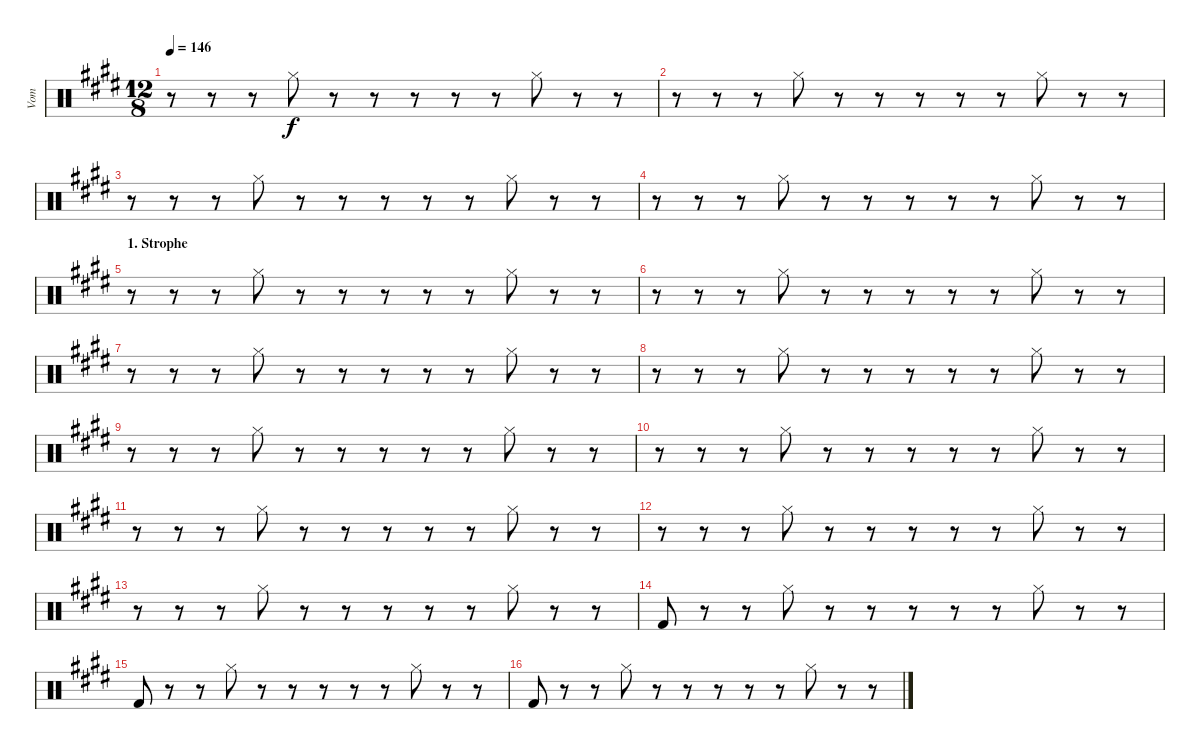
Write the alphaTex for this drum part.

\track ("Vom" "Vom") {instrument percussion}
\staff {score}
\articulation defaults
\ts (12 8)
\tempo 146
\clef neutral
\ks e
r.8{dy f} r.8 r.8 "Hi-Hat (closed)".8 r.8 r.8 r.8 r.8 r.8 "Hi-Hat (closed)".8 r.8 r.8 |
r.8 r.8 r.8 "Hi-Hat (closed)".8 r.8 r.8 r.8 r.8 r.8 "Hi-Hat (closed)".8 r.8 r.8 |
r.8 r.8 r.8 "Hi-Hat (closed)".8 r.8 r.8 r.8 r.8 r.8 "Hi-Hat (closed)".8 r.8 r.8 |
r.8 r.8 r.8 "Hi-Hat (closed)".8 r.8 r.8 r.8 r.8 r.8 "Hi-Hat (closed)".8 r.8 r.8 |
\section ("" "1. Strophe")
r.8 r.8 r.8 "Hi-Hat (closed)".8 r.8 r.8 r.8 r.8 r.8 "Hi-Hat (closed)".8 r.8 r.8 |
r.8 r.8 r.8 "Hi-Hat (closed)".8 r.8 r.8 r.8 r.8 r.8 "Hi-Hat (closed)".8 r.8 r.8 |
r.8 r.8 r.8 "Hi-Hat (closed)".8 r.8 r.8 r.8 r.8 r.8 "Hi-Hat (closed)".8 r.8 r.8 |
r.8 r.8 r.8 "Hi-Hat (closed)".8 r.8 r.8 r.8 r.8 r.8 "Hi-Hat (closed)".8 r.8 r.8 |
r.8 r.8 r.8 "Hi-Hat (closed)".8 r.8 r.8 r.8 r.8 r.8 "Hi-Hat (closed)".8 r.8 r.8 |
r.8 r.8 r.8 "Hi-Hat (closed)".8 r.8 r.8 r.8 r.8 r.8 "Hi-Hat (closed)".8 r.8 r.8 |
r.8 r.8 r.8 "Hi-Hat (closed)".8 r.8 r.8 r.8 r.8 r.8 "Hi-Hat (closed)".8 r.8 r.8 |
r.8 r.8 r.8 "Hi-Hat (closed)".8 r.8 r.8 r.8 r.8 r.8 "Hi-Hat (closed)".8 r.8 r.8 |
r.8 r.8 r.8 "Hi-Hat (closed)".8 r.8 r.8 r.8 r.8 r.8 "Hi-Hat (closed)".8 r.8 r.8 |
"Kick (hit) 2".8 r.8 r.8 "Hi-Hat (closed)".8 r.8 r.8 r.8 r.8 r.8 "Hi-Hat (closed)".8 r.8 r.8 |
"Kick (hit) 2".8 r.8 r.8 "Hi-Hat (closed)".8 r.8 r.8 r.8 r.8 r.8 "Hi-Hat (closed)".8 r.8 r.8 |
"Kick (hit) 2".8 r.8 r.8 "Hi-Hat (closed)".8 r.8 r.8 r.8 r.8 r.8 "Hi-Hat (closed)".8 r.8 r.8
